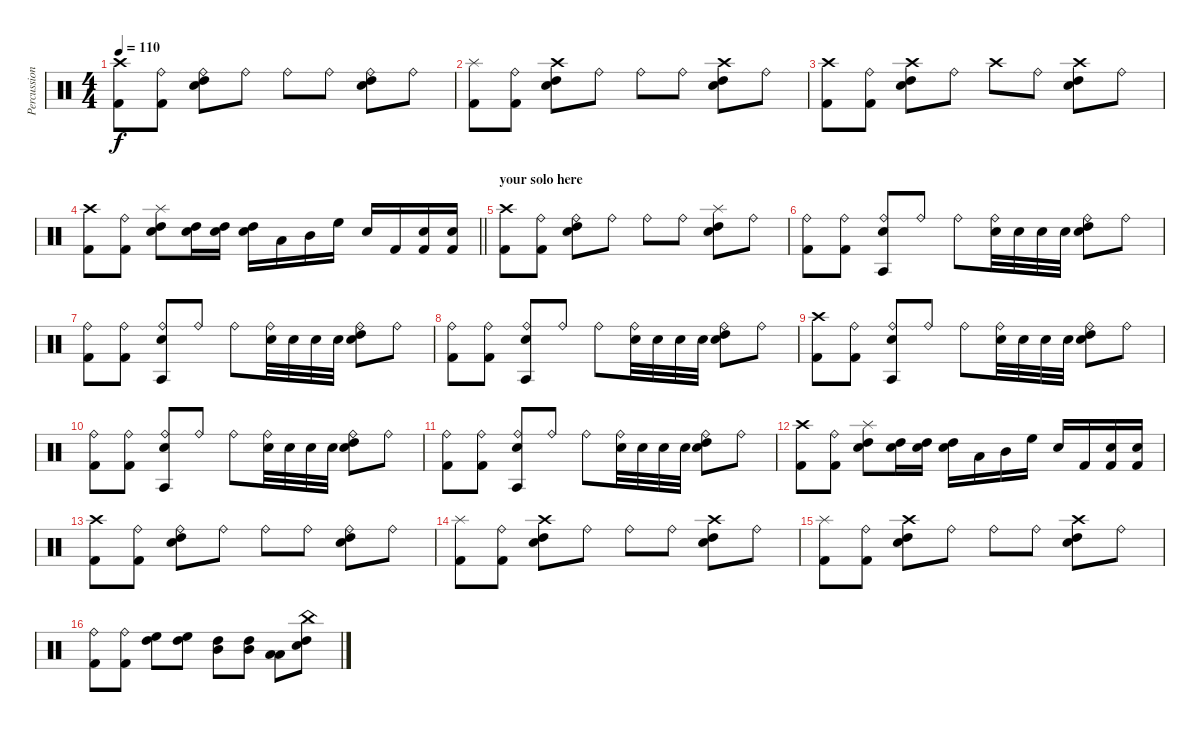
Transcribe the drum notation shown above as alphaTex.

\track ("Percussion" "Percussion") {instrument percussion}
\staff {score}
\articulation defaults
\ts (4 4)
\tempo 110
\clef neutral
\ks c
("Crash high (hit)" "Kick (hit) 2").8{dy f} ("Ride (bell)" "Kick (hit) 2").8 ("Ride (bell)" "High Tom (hit)" "Snare (hit) 2").8 "Ride (bell)".8 "Ride (bell)".8 "Ride (bell)".8 ("Ride (bell)" "High Tom (hit)" "Snare (hit) 2").8 "Ride (bell)".8 |
("Splash (hit)" "Kick (hit) 2").8 ("Ride (bell)" "Kick (hit) 2").8 ("Crash high (hit)" "High Tom (hit)" "Snare (hit) 2").8 "Ride (bell)".8 "Ride (bell)".8 "Ride (bell)".8 ("Crash high (hit)" "High Tom (hit)" "Snare (hit) 2").8 "Ride (bell)".8 |
("Crash high (hit)" "Kick (hit) 2").8 ("Ride (bell)" "Kick (hit) 2").8 ("Crash high (hit)" "High Tom (hit)" "Snare (hit) 2").8 "Ride (bell)".8 "Crash high (hit)".8 "Ride (bell)".8 ("Crash high (hit)" "High Tom (hit)" "Snare (hit) 2").8 "Ride (bell)".8 |
\barLineRight lightlight
("Crash high (hit)" "Kick (hit) 2").8 ("Ride (bell)" "Kick (hit) 2").8 ("Splash (hit)" "High Tom (hit)" "Snare (hit) 2").8 ("High Tom (hit)" "Snare (hit) 2").16 ("High Tom (hit)" "Snare (hit) 2").16 ("High Tom (hit)" "Snare (hit) 2").16 "Low Tom (hit)".16 "Mid Tom (hit)".16 "High Floor Tom (hit)".16 "Snare (hit) 2".16 "Kick (hit) 2".16 ("Snare (hit) 2" "Kick (hit) 2").16 ("Snare (hit) 2" "Kick (hit) 2").16 |
\section ("" "your solo here")
("Crash high (hit)" "Kick (hit) 2").8 ("Ride (bell)" "Kick (hit) 2").8 ("Ride (bell)" "High Tom (hit)" "Snare (hit) 2").8 "Ride (bell)".8 "Ride (bell)".8 "Ride (bell)".8 ("Splash (hit)" "High Tom (hit)" "Snare (hit) 2").8 "Ride (bell)".8 |
("Ride (bell)" "Kick (hit) 2").8 ("Ride (bell)" "Kick (hit) 2").8 ("Ride (bell)" "Agogo tow (hit)" "Snare (hit) 2").8 "Ride (bell)".8 "Ride (bell)".8 ("Ride (bell)" "Snare (hit) 2").32 "Snare (hit) 2".32 "Snare (hit) 2".32 "Snare (hit) 2".32 ("Ride (bell)" "High Tom (hit)" "Snare (hit) 2").8 "Ride (bell)".8 |
("Ride (bell)" "Kick (hit) 2").8 ("Ride (bell)" "Kick (hit) 2").8 ("Ride (bell)" "Agogo tow (hit)" "Snare (hit) 2").8 "Ride (bell)".8 "Ride (bell)".8 ("Ride (bell)" "Snare (hit) 2").32 "Snare (hit) 2".32 "Snare (hit) 2".32 "Snare (hit) 2".32 ("Ride (bell)" "High Tom (hit)" "Snare (hit) 2").8 "Ride (bell)".8 |
("Ride (bell)" "Kick (hit) 2").8 ("Ride (bell)" "Kick (hit) 2").8 ("Ride (bell)" "Agogo tow (hit)" "Snare (hit) 2").8 "Ride (bell)".8 "Ride (bell)".8 ("Ride (bell)" "Snare (hit) 2").32 "Snare (hit) 2".32 "Snare (hit) 2".32 "Snare (hit) 2".32 ("Ride (bell)" "High Tom (hit)" "Snare (hit) 2").8 "Ride (bell)".8 |
("Crash high (hit)" "Kick (hit) 2").8 ("Ride (bell)" "Kick (hit) 2").8 ("Ride (bell)" "Agogo tow (hit)" "Snare (hit) 2").8 "Ride (bell)".8 "Ride (bell)".8 ("Ride (bell)" "Snare (hit) 2").32 "Snare (hit) 2".32 "Snare (hit) 2".32 "Snare (hit) 2".32 ("Ride (bell)" "High Tom (hit)" "Snare (hit) 2").8 "Ride (bell)".8 |
("Ride (bell)" "Kick (hit) 2").8 ("Ride (bell)" "Kick (hit) 2").8 ("Ride (bell)" "Agogo tow (hit)" "Snare (hit) 2").8 "Ride (bell)".8 "Ride (bell)".8 ("Ride (bell)" "Snare (hit) 2").32 "Snare (hit) 2".32 "Snare (hit) 2".32 "Snare (hit) 2".32 ("Ride (bell)" "High Tom (hit)" "Snare (hit) 2").8 "Ride (bell)".8 |
("Ride (bell)" "Kick (hit) 2").8 ("Ride (bell)" "Kick (hit) 2").8 ("Ride (bell)" "Agogo tow (hit)" "Snare (hit) 2").8 "Ride (bell)".8 "Ride (bell)".8 ("Ride (bell)" "Snare (hit) 2").32 "Snare (hit) 2".32 "Snare (hit) 2".32 "Snare (hit) 2".32 ("Ride (bell)" "High Tom (hit)" "Snare (hit) 2").8 "Ride (bell)".8 |
("Crash high (hit)" "Kick (hit) 2").8 ("Ride (bell)" "Kick (hit) 2").8 ("Splash (hit)" "High Tom (hit)" "Snare (hit) 2").8 ("High Tom (hit)" "Snare (hit) 2").16 ("High Tom (hit)" "Snare (hit) 2").16 ("High Tom (hit)" "Snare (hit) 2").16 "Low Tom (hit)".16 "Mid Tom (hit)".16 "High Floor Tom (hit)".16 "Snare (hit) 2".16 "Kick (hit) 2".16 ("Snare (hit) 2" "Kick (hit) 2").16 ("Snare (hit) 2" "Kick (hit) 2").16 |
("Crash high (hit)" "Kick (hit) 2").8 ("Ride (bell)" "Kick (hit) 2").8 ("Ride (bell)" "High Tom (hit)" "Snare (hit) 2").8 "Ride (bell)".8 "Ride (bell)".8 "Ride (bell)".8 ("Ride (bell)" "High Tom (hit)" "Snare (hit) 2").8 "Ride (bell)".8 |
("Splash (hit)" "Kick (hit) 2").8 ("Ride (bell)" "Kick (hit) 2").8 ("Crash high (hit)" "High Tom (hit)" "Snare (hit) 2").8 "Ride (bell)".8 "Ride (bell)".8 "Ride (bell)".8 ("Crash high (hit)" "High Tom (hit)" "Snare (hit) 2").8 "Ride (bell)".8 |
("Splash (hit)" "Kick (hit) 2").8 ("Ride (bell)" "Kick (hit) 2").8 ("Crash high (hit)" "High Tom (hit)" "Snare (hit) 2").8 "Ride (bell)".8 "Ride (bell)".8 "Ride (bell)".8 ("Crash high (hit)" "High Tom (hit)" "Snare (hit) 2").8 "Ride (bell)".8 |
("Ride (bell)" "Kick (hit) 2").8 ("Ride (bell)" "Kick (hit) 2").8 ("High Floor Tom (hit)" "High Tom (hit)").8 ("High Floor Tom (hit)" "High Tom (hit)").8 ("High Tom (hit)" "Mid Tom (hit)").8 ("High Tom (hit)" "Mid Tom (hit)").8 ("Low Tom (hit)" "Low Floor Tom (hit)").8 ("China (hit)" "High Tom (hit)" "Snare (hit) 2").8
